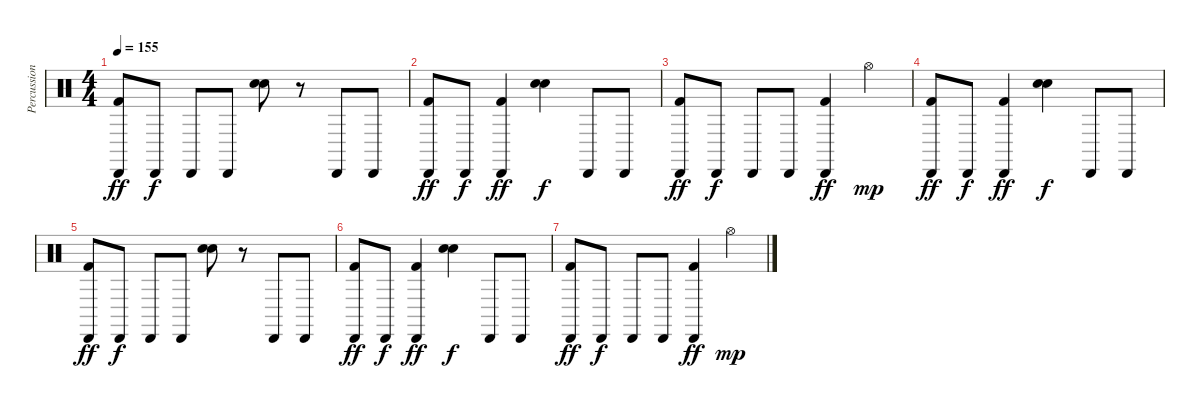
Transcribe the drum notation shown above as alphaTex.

\track ("Percussion" "Percussion") {instrument percussion}
\staff {score}
\articulation defaults
\ts (4 4)
\tempo 155
\clef neutral
\ks c
("Cabasa (hit)" "Kick (hit) 2").8{dy ff} "Cabasa (hit)".8{dy f} "Cabasa (hit)".8 "Cabasa (hit)".8 ("Electric Snare (hit)" "Hand Clap (hit)").8 r.8 "Cabasa (hit)".8 "Cabasa (hit)".8 |
("Cabasa (hit)" "Kick (hit) 2").8{dy ff} "Cabasa (hit)".8{dy f} ("Cabasa (hit)" "Kick (hit) 2").4{dy ff} ("Electric Snare (hit)" "Hand Clap (hit)").4{dy f} "Cabasa (hit)".8 "Cabasa (hit)".8 |
("Cabasa (hit)" "Kick (hit) 2").8{dy ff} "Cabasa (hit)".8{dy f} "Cabasa (hit)".8 "Cabasa (hit)".8 ("Cabasa (hit)" "Kick (hit) 2").4{dy ff} "Hi-Hat (open)".4{dy mp} |
("Cabasa (hit)" "Kick (hit) 2").8{dy ff} "Cabasa (hit)".8{dy f} ("Cabasa (hit)" "Kick (hit) 2").4{dy ff} ("Electric Snare (hit)" "Hand Clap (hit)").4{dy f} "Cabasa (hit)".8 "Cabasa (hit)".8 |
("Cabasa (hit)" "Kick (hit) 2").8{dy ff} "Cabasa (hit)".8{dy f} "Cabasa (hit)".8 "Cabasa (hit)".8 ("Electric Snare (hit)" "Hand Clap (hit)").8 r.8 "Cabasa (hit)".8 "Cabasa (hit)".8 |
("Cabasa (hit)" "Kick (hit) 2").8{dy ff} "Cabasa (hit)".8{dy f} ("Cabasa (hit)" "Kick (hit) 2").4{dy ff} ("Electric Snare (hit)" "Hand Clap (hit)").4{dy f} "Cabasa (hit)".8 "Cabasa (hit)".8 |
("Cabasa (hit)" "Kick (hit) 2").8{dy ff} "Cabasa (hit)".8{dy f} "Cabasa (hit)".8 "Cabasa (hit)".8 ("Cabasa (hit)" "Kick (hit) 2").4{dy ff} "Hi-Hat (open)".4{dy mp}
